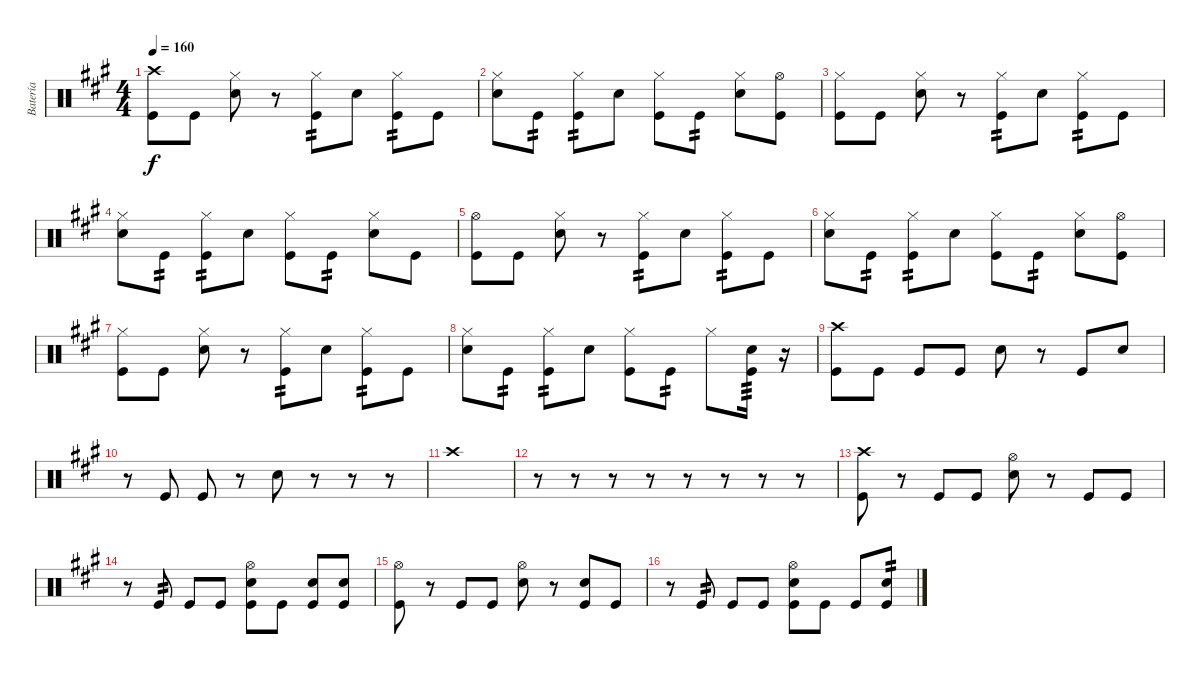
\track ("Batería" "Batería") {instrument percussion}
\staff {score}
\articulation defaults
\ts (4 4)
\tempo 160
\clef neutral
\ks a
("Crash high (hit)" "Kick (hit)").8{dy f} "Kick (hit)".8 ("Hi-Hat (closed)" "Electric Snare (hit)").8 r.8 ("Hi-Hat (closed)" "Kick (hit)").8{tp 2} "Electric Snare (hit)".8 ("Hi-Hat (closed)" "Kick (hit)").8{tp 2} "Kick (hit)".8 |
("Hi-Hat (closed)" "Electric Snare (hit)").8 "Kick (hit)".8{tp 2} ("Hi-Hat (closed)" "Kick (hit)").8{tp 2} "Electric Snare (hit)".8 ("Hi-Hat (closed)" "Kick (hit)").8 "Kick (hit)".8{tp 2} ("Hi-Hat (closed)" "Electric Snare (hit)").8 ("Hi-Hat (open)" "Kick (hit)").8 |
("Hi-Hat (closed)" "Kick (hit)").8 "Kick (hit)".8 ("Hi-Hat (closed)" "Electric Snare (hit)").8 r.8 ("Hi-Hat (closed)" "Kick (hit)").8{tp 2} "Electric Snare (hit)".8 ("Hi-Hat (closed)" "Kick (hit)").8{tp 2} "Kick (hit)".8 |
("Hi-Hat (closed)" "Electric Snare (hit)").8 "Kick (hit)".8{tp 2} ("Hi-Hat (closed)" "Kick (hit)").8{tp 2} "Electric Snare (hit)".8 ("Hi-Hat (closed)" "Kick (hit)").8 "Kick (hit)".8{tp 2} ("Hi-Hat (closed)" "Electric Snare (hit)").8 "Kick (hit)".8 |
("Hi-Hat (open)" "Kick (hit)").8 "Kick (hit)".8 ("Hi-Hat (closed)" "Electric Snare (hit)").8 r.8 ("Hi-Hat (closed)" "Kick (hit)").8{tp 2} "Electric Snare (hit)".8 ("Hi-Hat (closed)" "Kick (hit)").8{tp 2} "Kick (hit)".8 |
("Hi-Hat (closed)" "Electric Snare (hit)").8 "Kick (hit)".8{tp 2} ("Hi-Hat (closed)" "Kick (hit)").8{tp 2} "Electric Snare (hit)".8 ("Hi-Hat (closed)" "Kick (hit)").8 "Kick (hit)".8{tp 2} ("Hi-Hat (closed)" "Electric Snare (hit)").8 ("Hi-Hat (open)" "Kick (hit)").8 |
("Hi-Hat (closed)" "Kick (hit)").8 "Kick (hit)".8 ("Hi-Hat (closed)" "Electric Snare (hit)").8 r.8 ("Hi-Hat (closed)" "Kick (hit)").8{tp 2} "Electric Snare (hit)".8 ("Hi-Hat (closed)" "Kick (hit)").8{tp 2} "Kick (hit)".8 |
("Hi-Hat (closed)" "Electric Snare (hit)").8 "Kick (hit)".8{tp 2} ("Hi-Hat (closed)" "Kick (hit)").8{tp 2} "Electric Snare (hit)".8 ("Hi-Hat (closed)" "Kick (hit)").8 "Kick (hit)".8{tp 2} "Hi-Hat (closed)".8 ("Electric Snare (hit)" "Kick (hit)").16{tp 3} r.16 |
("Crash high (hit)" "Kick (hit)").8 "Kick (hit)".8 "Kick (hit)".8 "Kick (hit)".8 "Electric Snare (hit)".8 r.8 "Kick (hit)".8 "Electric Snare (hit)".8 |
r.8 "Kick (hit)".8 "Kick (hit)".8 r.8 "Electric Snare (hit)".8 r.8 r.8 r.8 |
"Crash high (hit)".1 |
r.8 r.8 r.8 r.8 r.8 r.8 r.8 r.8 |
("Crash high (hit)" "Kick (hit)").8 r.8 "Kick (hit)".8 "Kick (hit)".8 ("Hi-Hat (open)" "Electric Snare (hit)").8 r.8 "Kick (hit)".8 "Kick (hit)".8 |
r.8 "Kick (hit)".8{tp 2} "Kick (hit)".8 "Kick (hit)".8 ("Hi-Hat (open)" "Electric Snare (hit)" "Kick (hit)").8 "Kick (hit)".8 ("Electric Snare (hit)" "Kick (hit)").8 ("Electric Snare (hit)" "Kick (hit)").8 |
("Hi-Hat (open)" "Kick (hit)").8 r.8 "Kick (hit)".8 "Kick (hit)".8 ("Hi-Hat (open)" "Electric Snare (hit)").8 r.8 ("Electric Snare (hit)" "Kick (hit)").8 "Kick (hit)".8 |
r.8 "Kick (hit)".8{tp 2} "Kick (hit)".8 "Kick (hit)".8 ("Hi-Hat (open)" "Electric Snare (hit)" "Kick (hit)").8 "Kick (hit)".8 "Kick (hit)".8 ("Electric Snare (hit)" "Kick (hit)").8{tp 2}
